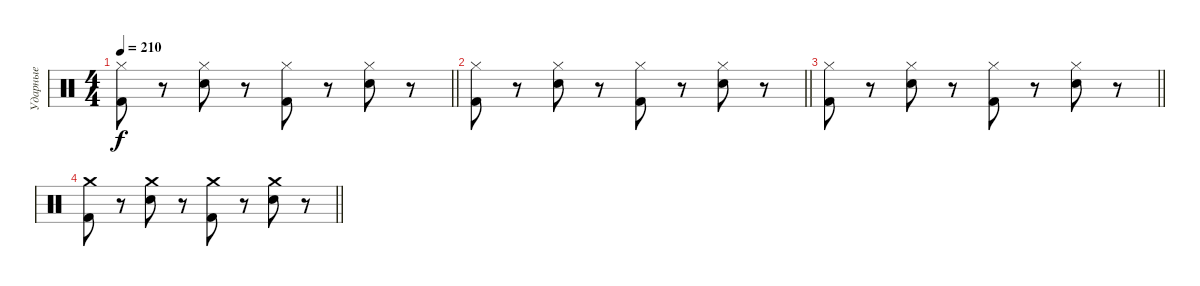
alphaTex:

\track ("Ударные" "Ударные") {instrument percussion}
\staff {score}
\articulation defaults
\ts (4 4)
\tempo 210
\clef neutral
\barLineRight lightlight
\ks c
("Kick (hit) 2" "Hi-Hat (closed)").8{dy f} r.8 ("Snare (hit) 2" "Hi-Hat (closed)").8 r.8 ("Kick (hit) 2" "Hi-Hat (closed)").8 r.8 ("Snare (hit) 2" "Hi-Hat (closed)").8 r.8 |
\barLineRight lightlight
("Kick (hit) 2" "Hi-Hat (closed)").8 r.8 ("Snare (hit) 2" "Hi-Hat (closed)").8 r.8 ("Kick (hit) 2" "Hi-Hat (closed)").8 r.8 ("Snare (hit) 2" "Hi-Hat (closed)").8 r.8 |
\barLineRight lightlight
("Kick (hit) 2" "Hi-Hat (closed)").8 r.8 ("Snare (hit) 2" "Hi-Hat (closed)").8 r.8 ("Kick (hit) 2" "Hi-Hat (closed)").8 r.8 ("Snare (hit) 2" "Hi-Hat (closed)").8 r.8 |
\barLineRight lightlight
("Kick (hit) 2" "Crash medium (hit)").8 r.8 ("Snare (hit) 2" "Crash medium (hit)").8 r.8 ("Kick (hit) 2" "Crash medium (hit)").8 r.8 ("Snare (hit) 2" "Crash medium (hit)").8 r.8
